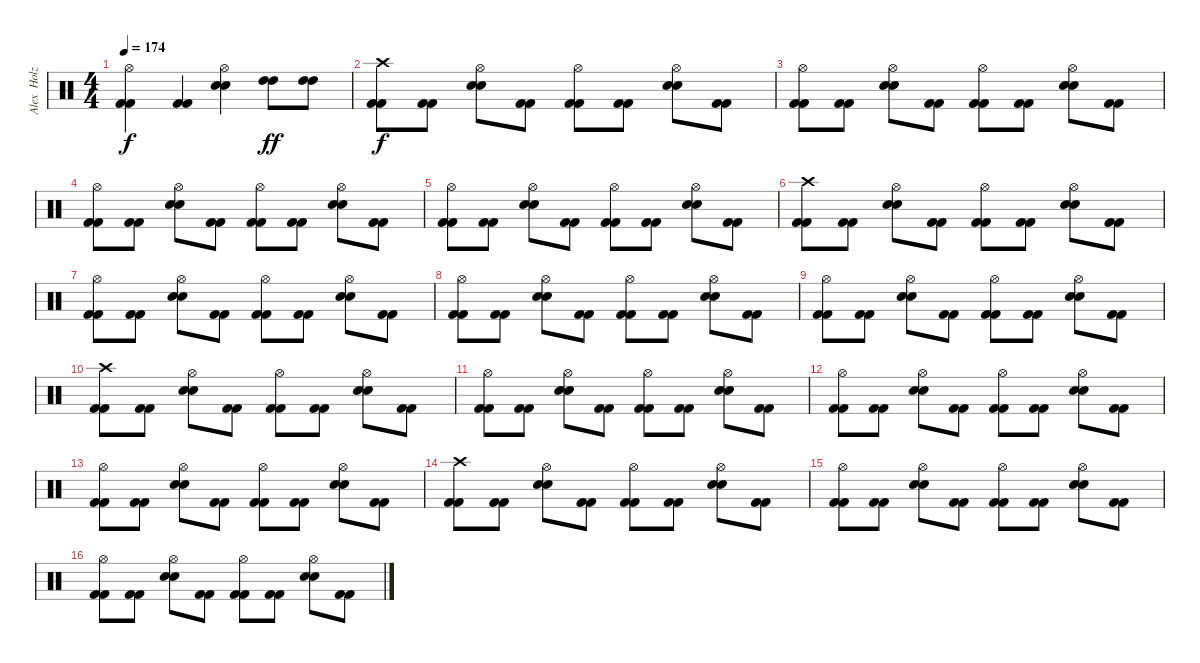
\track ("Alex  Holzwarth (Drums)" "Alex  Holz") {instrument percussion}
\staff {score}
\articulation defaults
\ts (4 4)
\tempo 174
\clef neutral
\ks c
("Hi-Hat (open)" "Kick (hit) 2" "Kick (hit) 2").4{dy f} ("Kick (hit) 2" "Kick (hit) 2").4 ("Hi-Hat (open)" "Snare (hit) 2" "Snare (hit) 2").4 ("High Tom (hit)" "High Tom (hit)").8{dy ff} ("High Tom (hit)" "High Tom (hit)").8 |
("Crash high (hit)" "Kick (hit) 2" "Kick (hit) 2").8{dy f} ("Kick (hit) 2" "Kick (hit) 2").8 ("Hi-Hat (open)" "Snare (hit) 2" "Snare (hit) 2").8 ("Kick (hit) 2" "Kick (hit) 2").8 ("Hi-Hat (open)" "Kick (hit) 2" "Kick (hit) 2").8 ("Kick (hit) 2" "Kick (hit) 2").8 ("Hi-Hat (open)" "Snare (hit) 2" "Snare (hit) 2").8 ("Kick (hit) 2" "Kick (hit) 2").8 |
("Hi-Hat (open)" "Kick (hit) 2" "Kick (hit) 2").8 ("Kick (hit) 2" "Kick (hit) 2").8 ("Hi-Hat (open)" "Snare (hit) 2" "Snare (hit) 2").8 ("Kick (hit) 2" "Kick (hit) 2").8 ("Hi-Hat (open)" "Kick (hit) 2" "Kick (hit) 2").8 ("Kick (hit) 2" "Kick (hit) 2").8 ("Hi-Hat (open)" "Snare (hit) 2" "Snare (hit) 2").8 ("Kick (hit) 2" "Kick (hit) 2").8 |
("Hi-Hat (open)" "Kick (hit) 2" "Kick (hit) 2").8 ("Kick (hit) 2" "Kick (hit) 2").8 ("Hi-Hat (open)" "Snare (hit) 2" "Snare (hit) 2").8 ("Kick (hit) 2" "Kick (hit) 2").8 ("Hi-Hat (open)" "Kick (hit) 2" "Kick (hit) 2").8 ("Kick (hit) 2" "Kick (hit) 2").8 ("Hi-Hat (open)" "Snare (hit) 2" "Snare (hit) 2").8 ("Kick (hit) 2" "Kick (hit) 2").8 |
("Hi-Hat (open)" "Kick (hit) 2" "Kick (hit) 2").8 ("Kick (hit) 2" "Kick (hit) 2").8 ("Hi-Hat (open)" "Snare (hit) 2" "Snare (hit) 2").8 ("Kick (hit) 2" "Kick (hit) 2").8 ("Hi-Hat (open)" "Kick (hit) 2" "Kick (hit) 2").8 ("Kick (hit) 2" "Kick (hit) 2").8 ("Hi-Hat (open)" "Snare (hit) 2" "Snare (hit) 2").8 ("Kick (hit) 2" "Kick (hit) 2").8 |
("Crash high (hit)" "Kick (hit) 2" "Kick (hit) 2").8 ("Kick (hit) 2" "Kick (hit) 2").8 ("Hi-Hat (open)" "Snare (hit) 2" "Snare (hit) 2").8 ("Kick (hit) 2" "Kick (hit) 2").8 ("Hi-Hat (open)" "Kick (hit) 2" "Kick (hit) 2").8 ("Kick (hit) 2" "Kick (hit) 2").8 ("Hi-Hat (open)" "Snare (hit) 2" "Snare (hit) 2").8 ("Kick (hit) 2" "Kick (hit) 2").8 |
("Hi-Hat (open)" "Kick (hit) 2" "Kick (hit) 2").8 ("Kick (hit) 2" "Kick (hit) 2").8 ("Hi-Hat (open)" "Snare (hit) 2" "Snare (hit) 2").8 ("Kick (hit) 2" "Kick (hit) 2").8 ("Hi-Hat (open)" "Kick (hit) 2" "Kick (hit) 2").8 ("Kick (hit) 2" "Kick (hit) 2").8 ("Hi-Hat (open)" "Snare (hit) 2" "Snare (hit) 2").8 ("Kick (hit) 2" "Kick (hit) 2").8 |
("Hi-Hat (open)" "Kick (hit) 2" "Kick (hit) 2").8 ("Kick (hit) 2" "Kick (hit) 2").8 ("Hi-Hat (open)" "Snare (hit) 2" "Snare (hit) 2").8 ("Kick (hit) 2" "Kick (hit) 2").8 ("Hi-Hat (open)" "Kick (hit) 2" "Kick (hit) 2").8 ("Kick (hit) 2" "Kick (hit) 2").8 ("Hi-Hat (open)" "Snare (hit) 2" "Snare (hit) 2").8 ("Kick (hit) 2" "Kick (hit) 2").8 |
("Hi-Hat (open)" "Kick (hit) 2" "Kick (hit) 2").8 ("Kick (hit) 2" "Kick (hit) 2").8 ("Hi-Hat (open)" "Snare (hit) 2" "Snare (hit) 2").8 ("Kick (hit) 2" "Kick (hit) 2").8 ("Hi-Hat (open)" "Kick (hit) 2" "Kick (hit) 2").8 ("Kick (hit) 2" "Kick (hit) 2").8 ("Hi-Hat (open)" "Snare (hit) 2" "Snare (hit) 2").8 ("Kick (hit) 2" "Kick (hit) 2").8 |
("Crash high (hit)" "Kick (hit) 2" "Kick (hit) 2").8 ("Kick (hit) 2" "Kick (hit) 2").8 ("Hi-Hat (open)" "Snare (hit) 2" "Snare (hit) 2").8 ("Kick (hit) 2" "Kick (hit) 2").8 ("Hi-Hat (open)" "Kick (hit) 2" "Kick (hit) 2").8 ("Kick (hit) 2" "Kick (hit) 2").8 ("Hi-Hat (open)" "Snare (hit) 2" "Snare (hit) 2").8 ("Kick (hit) 2" "Kick (hit) 2").8 |
("Hi-Hat (open)" "Kick (hit) 2" "Kick (hit) 2").8 ("Kick (hit) 2" "Kick (hit) 2").8 ("Hi-Hat (open)" "Snare (hit) 2" "Snare (hit) 2").8 ("Kick (hit) 2" "Kick (hit) 2").8 ("Hi-Hat (open)" "Kick (hit) 2" "Kick (hit) 2").8 ("Kick (hit) 2" "Kick (hit) 2").8 ("Hi-Hat (open)" "Snare (hit) 2" "Snare (hit) 2").8 ("Kick (hit) 2" "Kick (hit) 2").8 |
("Hi-Hat (open)" "Kick (hit) 2" "Kick (hit) 2").8 ("Kick (hit) 2" "Kick (hit) 2").8 ("Hi-Hat (open)" "Snare (hit) 2" "Snare (hit) 2").8 ("Kick (hit) 2" "Kick (hit) 2").8 ("Hi-Hat (open)" "Kick (hit) 2" "Kick (hit) 2").8 ("Kick (hit) 2" "Kick (hit) 2").8 ("Hi-Hat (open)" "Snare (hit) 2" "Snare (hit) 2").8 ("Kick (hit) 2" "Kick (hit) 2").8 |
("Hi-Hat (open)" "Kick (hit) 2" "Kick (hit) 2").8 ("Kick (hit) 2" "Kick (hit) 2").8 ("Hi-Hat (open)" "Snare (hit) 2" "Snare (hit) 2").8 ("Kick (hit) 2" "Kick (hit) 2").8 ("Hi-Hat (open)" "Kick (hit) 2" "Kick (hit) 2").8 ("Kick (hit) 2" "Kick (hit) 2").8 ("Hi-Hat (open)" "Snare (hit) 2" "Snare (hit) 2").8 ("Kick (hit) 2" "Kick (hit) 2").8 |
("Crash high (hit)" "Kick (hit) 2" "Kick (hit) 2").8 ("Kick (hit) 2" "Kick (hit) 2").8 ("Hi-Hat (open)" "Snare (hit) 2" "Snare (hit) 2").8 ("Kick (hit) 2" "Kick (hit) 2").8 ("Hi-Hat (open)" "Kick (hit) 2" "Kick (hit) 2").8 ("Kick (hit) 2" "Kick (hit) 2").8 ("Hi-Hat (open)" "Snare (hit) 2" "Snare (hit) 2").8 ("Kick (hit) 2" "Kick (hit) 2").8 |
("Hi-Hat (open)" "Kick (hit) 2" "Kick (hit) 2").8 ("Kick (hit) 2" "Kick (hit) 2").8 ("Hi-Hat (open)" "Snare (hit) 2" "Snare (hit) 2").8 ("Kick (hit) 2" "Kick (hit) 2").8 ("Hi-Hat (open)" "Kick (hit) 2" "Kick (hit) 2").8 ("Kick (hit) 2" "Kick (hit) 2").8 ("Hi-Hat (open)" "Snare (hit) 2" "Snare (hit) 2").8 ("Kick (hit) 2" "Kick (hit) 2").8 |
("Hi-Hat (open)" "Kick (hit) 2" "Kick (hit) 2").8 ("Kick (hit) 2" "Kick (hit) 2").8 ("Hi-Hat (open)" "Snare (hit) 2" "Snare (hit) 2").8 ("Kick (hit) 2" "Kick (hit) 2").8 ("Hi-Hat (open)" "Kick (hit) 2" "Kick (hit) 2").8 ("Kick (hit) 2" "Kick (hit) 2").8 ("Hi-Hat (open)" "Snare (hit) 2" "Snare (hit) 2").8 ("Kick (hit) 2" "Kick (hit) 2").8
